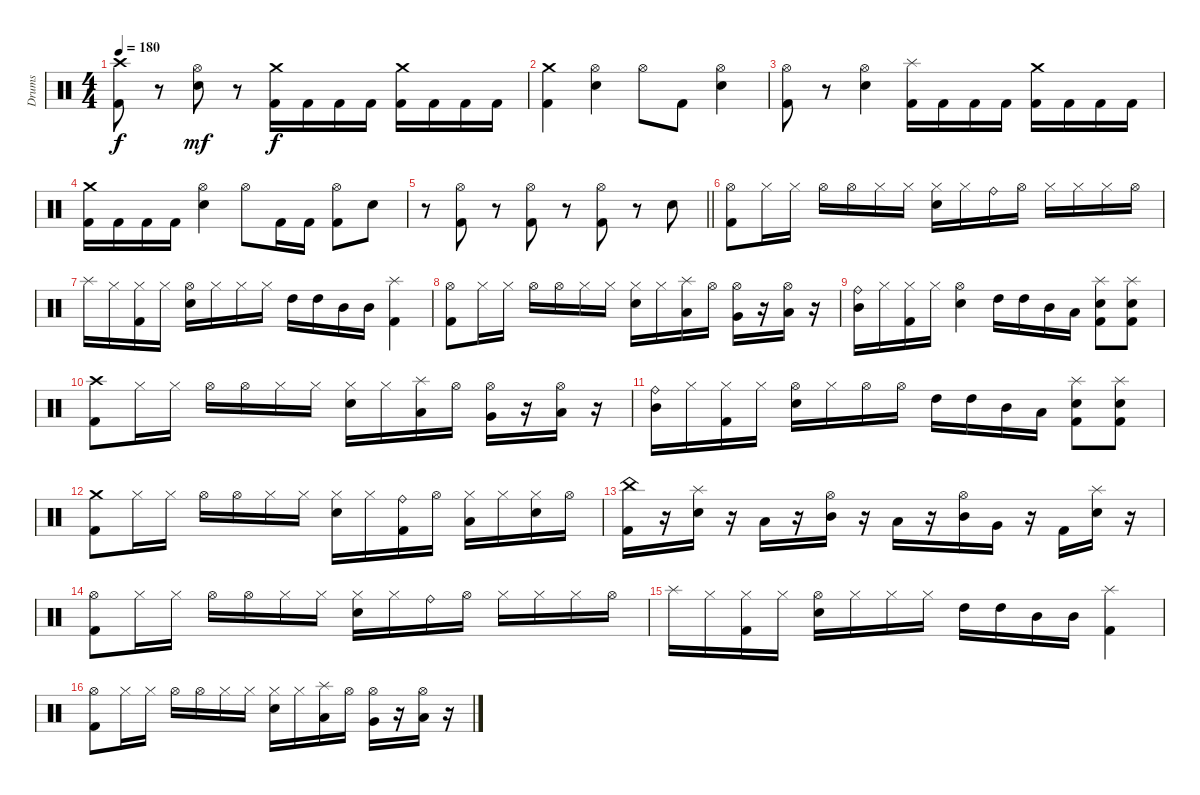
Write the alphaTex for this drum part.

\track ("Drums" "Drums") {instrument percussion}
\staff {score}
\articulation defaults
\ts (4 4)
\tempo 180
\clef neutral
\ks c
("Crash high (hit)" "Kick (hit) 2").8{dy f} r.8 ("Hi-Hat (open)" "Electric Snare (hit)").8{dy mf} r.8 ("Crash medium (hit)" "Kick (hit) 2").16{dy f} "Kick (hit) 2".16 "Kick (hit) 2".16 "Kick (hit) 2".16 ("Crash medium (hit)" "Kick (hit) 2").16 "Kick (hit) 2".16 "Kick (hit) 2".16 "Kick (hit) 2".16 |
("Crash medium (hit)" "Kick (hit) 2").4 ("Hi-Hat (open)" "Electric Snare (hit)").4 "Hi-Hat (open)".8 "Kick (hit) 2".8 ("Hi-Hat (open)" "Electric Snare (hit)").4 |
("Hi-Hat (open)" "Kick (hit) 2").8 r.8 ("Hi-Hat (open)" "Electric Snare (hit)").4 ("Splash (hit)" "Kick (hit) 2").16 "Kick (hit) 2".16 "Kick (hit) 2".16 "Kick (hit) 2".16 ("Crash medium (hit)" "Kick (hit) 2").16 "Kick (hit) 2".16 "Kick (hit) 2".16 "Kick (hit) 2".16 |
("Crash medium (hit)" "Kick (hit) 2").16 "Kick (hit) 2".16 "Kick (hit) 2".16 "Kick (hit) 2".16 ("Hi-Hat (open)" "Electric Snare (hit)").4 "Hi-Hat (open)".8 "Kick (hit) 2".16 "Kick (hit) 2".16 ("Hi-Hat (open)" "Kick (hit) 2").8 "Electric Snare (hit)".8 |
\barLineRight lightlight
r.8 ("Hi-Hat (open)" "Kick (hit) 2").8 r.8 ("Hi-Hat (open)" "Kick (hit) 2").8 r.8 ("Hi-Hat (open)" "Kick (hit) 2").8 r.8 "Electric Snare (hit)".8 |
\section ("" "")
("Hi-Hat (open)" "Kick (hit) 2").8 "Hi-Hat (closed)".16 "Hi-Hat (closed)".16 "Hi-Hat (open)".16 "Hi-Hat (open)".16 "Hi-Hat (closed)".16 "Hi-Hat (closed)".16 ("Hi-Hat (closed)" "Electric Snare (hit)").16 "Hi-Hat (closed)".16 "Ride (bell)".16 "Hi-Hat (open)".16 "Hi-Hat (closed)".16 "Hi-Hat (closed)".16 "Hi-Hat (closed)".16 "Hi-Hat (open)".16 |
"Splash (hit)".16 "Hi-Hat (closed)".16 ("Hi-Hat (closed)" "Kick (hit) 2").16 "Hi-Hat (closed)".16 ("Hi-Hat (open)" "Electric Snare (hit)").16 "Hi-Hat (closed)".16 "Hi-Hat (closed)".16 "Hi-Hat (closed)".16 "High Tom (hit)".16 "High Tom (hit)".16 "Mid Tom (hit)".16 "Mid Tom (hit)".16 ("Splash (hit)" "Kick (hit) 2").4 |
("Hi-Hat (open)" "Kick (hit) 2").8 "Hi-Hat (closed)".16 "Hi-Hat (closed)".16 "Hi-Hat (open)".16 "Hi-Hat (open)".16 "Hi-Hat (closed)".16 "Hi-Hat (closed)".16 ("Hi-Hat (closed)" "Electric Snare (hit)").16 "Hi-Hat (closed)".16 ("Splash (hit)" "Low Tom (hit)").16 "Hi-Hat (open)".16 ("Hi-Hat (open)" "Very Low Tom (hit)").16 r.16 ("Hi-Hat (open)" "Low Tom (hit)").16 r.16 |
("Ride (bell)" "Mid Tom (hit)").16 "Hi-Hat (closed)".16 ("Hi-Hat (closed)" "Kick (hit) 2").16 "Hi-Hat (closed)".16 ("Hi-Hat (open)" "Electric Snare (hit)").4 "High Tom (hit)".16 "High Tom (hit)".16 "Mid Tom (hit)".16 "Low Tom (hit)".16 ("Splash (hit)" "Electric Snare (hit)" "Kick (hit) 2").8 ("Splash (hit)" "Electric Snare (hit)" "Kick (hit) 2").8 |
("Crash high (hit)" "Kick (hit) 2").8 "Hi-Hat (closed)".16 "Hi-Hat (closed)".16 "Hi-Hat (open)".16 "Hi-Hat (open)".16 "Hi-Hat (closed)".16 "Hi-Hat (closed)".16 ("Hi-Hat (closed)" "Electric Snare (hit)").16 "Hi-Hat (closed)".16 ("Splash (hit)" "Low Tom (hit)").16 "Hi-Hat (open)".16 ("Hi-Hat (open)" "Very Low Tom (hit)").16 r.16 ("Hi-Hat (open)" "Low Tom (hit)").16 r.16 |
("Ride (bell)" "Mid Tom (hit)").16 "Hi-Hat (closed)".16 ("Hi-Hat (closed)" "Kick (hit) 2").16 "Hi-Hat (closed)".16 ("Hi-Hat (open)" "Electric Snare (hit)").16 "Hi-Hat (closed)".16 "Hi-Hat (open)".16 "Hi-Hat (open)".16 "High Tom (hit)".16 "High Tom (hit)".16 "Mid Tom (hit)".16 "Low Tom (hit)".16 ("Splash (hit)" "Electric Snare (hit)" "Kick (hit) 2").8 ("Splash (hit)" "Electric Snare (hit)" "Kick (hit) 2").8 |
("Crash medium (hit)" "Kick (hit) 2").8 "Hi-Hat (closed)".16 "Hi-Hat (closed)".16 "Hi-Hat (open)".16 "Hi-Hat (open)".16 "Hi-Hat (closed)".16 "Hi-Hat (closed)".16 ("Hi-Hat (closed)" "Electric Snare (hit)").16 "Hi-Hat (closed)".16 ("Ride (bell)" "Kick (hit) 2").16 "Hi-Hat (open)".16 ("Hi-Hat (closed)" "Low Tom (hit)").16 "Hi-Hat (closed)".16 ("Hi-Hat (closed)" "Electric Snare (hit)").16 "Hi-Hat (open)".16 |
("China (hit)" "Kick (hit) 2").16 r.16 ("Splash (hit)" "Electric Snare (hit)").16 r.16 "Low Tom (hit)".16 r.16 ("Hi-Hat (open)" "Mid Tom (hit)").16 r.16 "Low Tom (hit)".16 r.16 ("Hi-Hat (open)" "Mid Tom (hit)").16 "Very Low Tom (hit)".16 r.16 "Kick (hit) 2".16 ("Splash (hit)" "Electric Snare (hit)").16 r.16 |
("Hi-Hat (open)" "Kick (hit) 2").8 "Hi-Hat (closed)".16 "Hi-Hat (closed)".16 "Hi-Hat (open)".16 "Hi-Hat (open)".16 "Hi-Hat (closed)".16 "Hi-Hat (closed)".16 ("Hi-Hat (closed)" "Electric Snare (hit)").16 "Hi-Hat (closed)".16 "Ride (bell)".16 "Hi-Hat (open)".16 "Hi-Hat (closed)".16 "Hi-Hat (closed)".16 "Hi-Hat (closed)".16 "Hi-Hat (open)".16 |
"Splash (hit)".16 "Hi-Hat (closed)".16 ("Hi-Hat (closed)" "Kick (hit) 2").16 "Hi-Hat (closed)".16 ("Hi-Hat (open)" "Electric Snare (hit)").16 "Hi-Hat (closed)".16 "Hi-Hat (closed)".16 "Hi-Hat (closed)".16 "High Tom (hit)".16 "High Tom (hit)".16 "Mid Tom (hit)".16 "Mid Tom (hit)".16 ("Splash (hit)" "Kick (hit) 2").4 |
("Hi-Hat (open)" "Kick (hit) 2").8 "Hi-Hat (closed)".16 "Hi-Hat (closed)".16 "Hi-Hat (open)".16 "Hi-Hat (open)".16 "Hi-Hat (closed)".16 "Hi-Hat (closed)".16 ("Hi-Hat (closed)" "Electric Snare (hit)").16 "Hi-Hat (closed)".16 ("Splash (hit)" "Low Tom (hit)").16 "Hi-Hat (open)".16 ("Hi-Hat (open)" "Very Low Tom (hit)").16 r.16 ("Hi-Hat (open)" "Low Tom (hit)").16 r.16
